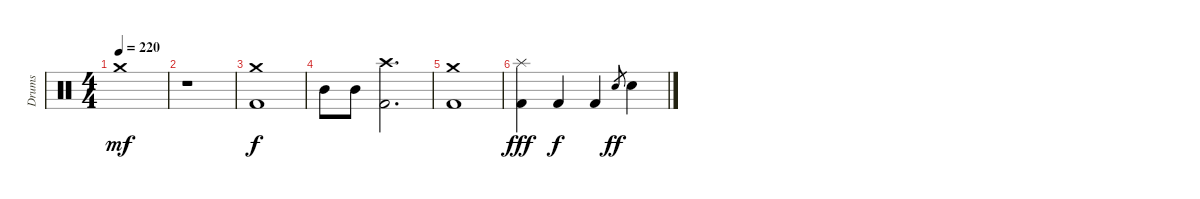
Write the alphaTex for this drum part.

\track ("Drums" "Drums") {instrument percussion}
\staff {score}
\articulation defaults
\ts (4 4)
\tempo 220
\clef neutral
\ks c "Crash medium (hit)".1{dy mf}
|
r.1 |
("Crash medium (hit)" "Kick (hit) 2").1{dy f} |
"Mid Tom (hit)".8 "Mid Tom (hit)".8 ("Crash high (hit)" "Kick (hit) 2").2{d} |
("Crash medium (hit)" "Kick (hit) 2").1 |
("Splash (hit)" "Kick (hit) 2").4{dy fff} "Kick (hit) 2".4{dy f} "Kick (hit) 2".4 "Electric Snare (hit)".8{gr dy ff} "Electric Snare (hit)".4
